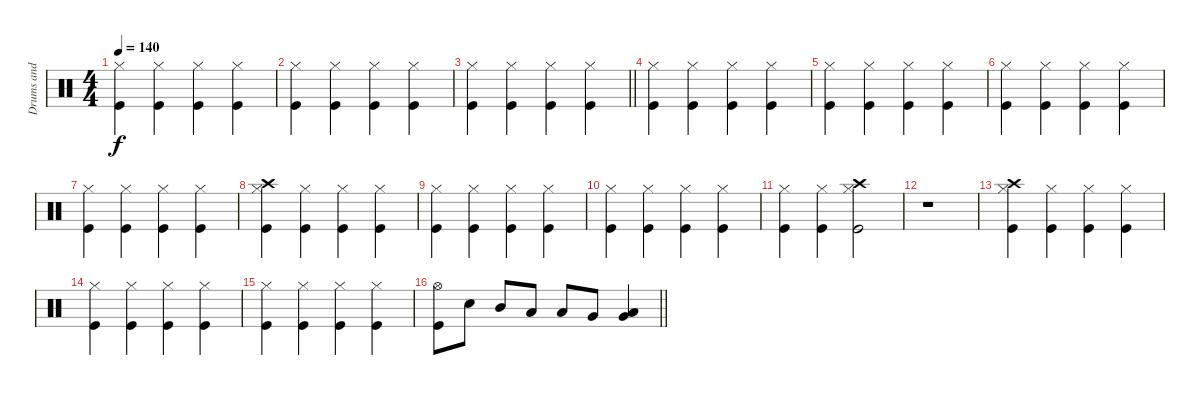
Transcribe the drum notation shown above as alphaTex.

\track ("Drums and percussion" "Drums and ") {instrument percussion}
\staff {score}
\articulation defaults
\ts (4 4)
\tempo 140
\clef neutral
\ks c
("Hi-Hat (closed)" "Kick (hit)").4{dy f} ("Hi-Hat (closed)" "Kick (hit)").4 ("Hi-Hat (closed)" "Kick (hit)").4 ("Hi-Hat (closed)" "Kick (hit)").4 |
("Hi-Hat (closed)" "Kick (hit)").4 ("Hi-Hat (closed)" "Kick (hit)").4 ("Hi-Hat (closed)" "Kick (hit)").4 ("Hi-Hat (closed)" "Kick (hit)").4 |
\barLineRight lightlight
("Hi-Hat (closed)" "Kick (hit)").4 ("Hi-Hat (closed)" "Kick (hit)").4 ("Hi-Hat (closed)" "Kick (hit)").4 ("Hi-Hat (closed)" "Kick (hit)").4 |
("Hi-Hat (closed)" "Kick (hit)").4 ("Hi-Hat (closed)" "Kick (hit)").4 ("Hi-Hat (closed)" "Kick (hit)").4 ("Hi-Hat (closed)" "Kick (hit)").4 |
("Hi-Hat (closed)" "Kick (hit)").4 ("Hi-Hat (closed)" "Kick (hit)").4 ("Hi-Hat (closed)" "Kick (hit)").4 ("Hi-Hat (closed)" "Kick (hit)").4 |
("Hi-Hat (closed)" "Kick (hit)").4 ("Hi-Hat (closed)" "Kick (hit)").4 ("Hi-Hat (closed)" "Kick (hit)").4 ("Hi-Hat (closed)" "Kick (hit)").4 |
("Hi-Hat (closed)" "Kick (hit)").4 ("Hi-Hat (closed)" "Kick (hit)").4 ("Hi-Hat (closed)" "Kick (hit)").4 ("Hi-Hat (closed)" "Kick (hit)").4 |
("Hi-Hat (closed)" "Crash high (hit)" "Kick (hit)").4 ("Hi-Hat (closed)" "Kick (hit)").4 ("Hi-Hat (closed)" "Kick (hit)").4 ("Hi-Hat (closed)" "Kick (hit)").4 |
("Hi-Hat (closed)" "Kick (hit)").4 ("Hi-Hat (closed)" "Kick (hit)").4 ("Hi-Hat (closed)" "Kick (hit)").4 ("Hi-Hat (closed)" "Kick (hit)").4 |
("Hi-Hat (closed)" "Kick (hit)").4 ("Hi-Hat (closed)" "Kick (hit)").4 ("Hi-Hat (closed)" "Kick (hit)").4 ("Hi-Hat (closed)" "Kick (hit)").4 |
("Hi-Hat (closed)" "Kick (hit)").4 ("Hi-Hat (closed)" "Kick (hit)").4 ("Hi-Hat (closed)" "Crash high (hit)" "Kick (hit)").2 |
r.1 |
("Hi-Hat (closed)" "Crash high (hit)" "Kick (hit)").4 ("Hi-Hat (closed)" "Kick (hit)").4 ("Hi-Hat (closed)" "Kick (hit)").4 ("Hi-Hat (closed)" "Kick (hit)").4 |
("Hi-Hat (closed)" "Kick (hit)").4 ("Hi-Hat (closed)" "Kick (hit)").4 ("Hi-Hat (closed)" "Kick (hit)").4 ("Hi-Hat (closed)" "Kick (hit)").4 |
("Hi-Hat (closed)" "Kick (hit)").4 ("Hi-Hat (closed)" "Kick (hit)").4 ("Hi-Hat (closed)" "Kick (hit)").4 ("Hi-Hat (closed)" "Kick (hit)").4 |
\barLineRight lightlight
("Hi-Hat (open)" "Kick (hit)").8 "Electric Snare (hit)".8 "Mid Tom (hit)".8 "Low Tom (hit)".8 "Low Tom (hit)".8 "Very Low Tom (hit)".8 ("Very Low Tom (hit)" "Low Floor Tom (hit)").4
